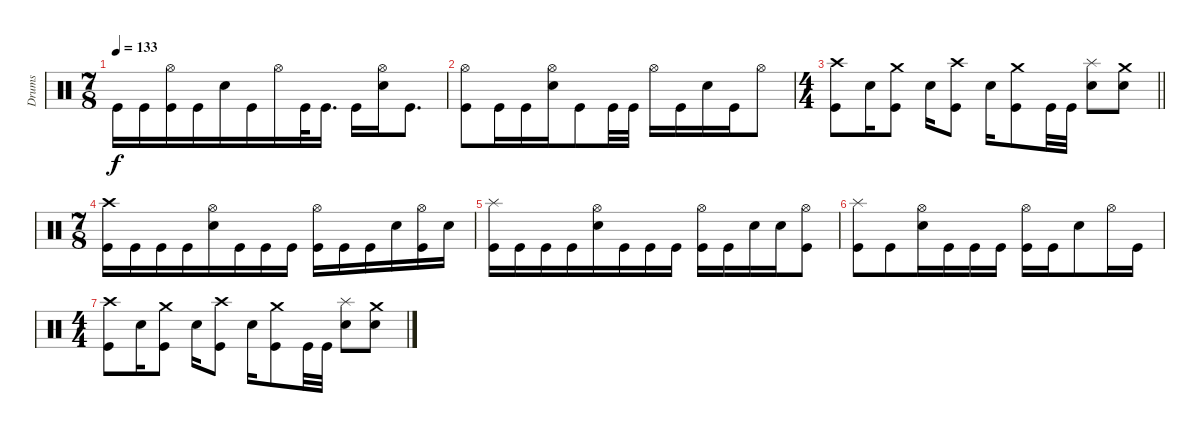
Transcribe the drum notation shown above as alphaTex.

\track ("Drums" "Drums") {instrument percussion}
\staff
\articulation defaults
\ts (7 8)
\tempo 133
\clef neutral
\ks c "Kick (hit)".16{dy f} "Kick (hit)".16
("Hi-Hat (open)" "Kick (hit)").16 "Kick (hit)".16 "Electric Snare (hit)".16 "Kick (hit)".16 "Hi-Hat (open)".16 "Kick (hit)".32 "Kick (hit)".16{d} "Kick (hit)".16 ("Hi-Hat (open)" "Electric Snare (hit)").16 "Kick (hit)".8{d} |
("Hi-Hat (open)" "Kick (hit)").8 "Kick (hit)".16 "Kick (hit)".16 ("Hi-Hat (open)" "Electric Snare (hit)").16 "Kick (hit)".8 "Kick (hit)".32 "Kick (hit)".32 "Hi-Hat (open)".16 "Kick (hit)".16 "Electric Snare (hit)".16 "Kick (hit)".16 "Hi-Hat (open)".8 |
\ts (4 4)
\barLineRight lightlight
("Crash high (hit)" "Kick (hit)").8 "Electric Snare (hit)".16 ("Crash medium (hit)" "Kick (hit)").8 "Electric Snare (hit)".16 ("Crash high (hit)" "Kick (hit)").8 "Electric Snare (hit)".16 ("Crash medium (hit)" "Kick (hit)").8 "Kick (hit)".32 "Kick (hit)".32 ("Splash (hit)" "Electric Snare (hit)").8 ("Crash medium (hit)" "Electric Snare (hit)").8 |
\ts (7 8)
("Crash high (hit)" "Kick (hit)").16 "Kick (hit)".16 "Kick (hit)".16 "Kick (hit)".16 ("Hi-Hat (open)" "Electric Snare (hit)").16 "Kick (hit)".16 "Kick (hit)".16 "Kick (hit)".16 ("Hi-Hat (open)" "Kick (hit)").16 "Kick (hit)".16 "Kick (hit)".16 "Electric Snare (hit)".16 ("Hi-Hat (open)" "Kick (hit)").16 "Electric Snare (hit)".16 |
("Splash (hit)" "Kick (hit)").16 "Kick (hit)".16 "Kick (hit)".16 "Kick (hit)".16 ("Hi-Hat (open)" "Electric Snare (hit)").16 "Kick (hit)".16 "Kick (hit)".16 "Kick (hit)".16 ("Hi-Hat (open)" "Kick (hit)").16 "Kick (hit)".16 "Electric Snare (hit)".16 "Electric Snare (hit)".16 ("Hi-Hat (open)" "Kick (hit)").8 |
("Splash (hit)" "Kick (hit)").8 "Kick (hit)".8 ("Hi-Hat (open)" "Electric Snare (hit)").16 "Kick (hit)".16 "Kick (hit)".16 "Kick (hit)".16 ("Hi-Hat (open)" "Kick (hit)").16 "Kick (hit)".16 "Electric Snare (hit)".8 "Hi-Hat (open)".16 "Kick (hit)".16 |
\ts (4 4)
("Crash high (hit)" "Kick (hit)").8 "Electric Snare (hit)".16 ("Crash medium (hit)" "Kick (hit)").8 "Electric Snare (hit)".16 ("Crash high (hit)" "Kick (hit)").8 "Electric Snare (hit)".16 ("Crash medium (hit)" "Kick (hit)").8 "Kick (hit)".32 "Kick (hit)".32 ("Splash (hit)" "Electric Snare (hit)").8 ("Crash medium (hit)" "Electric Snare (hit)").8
